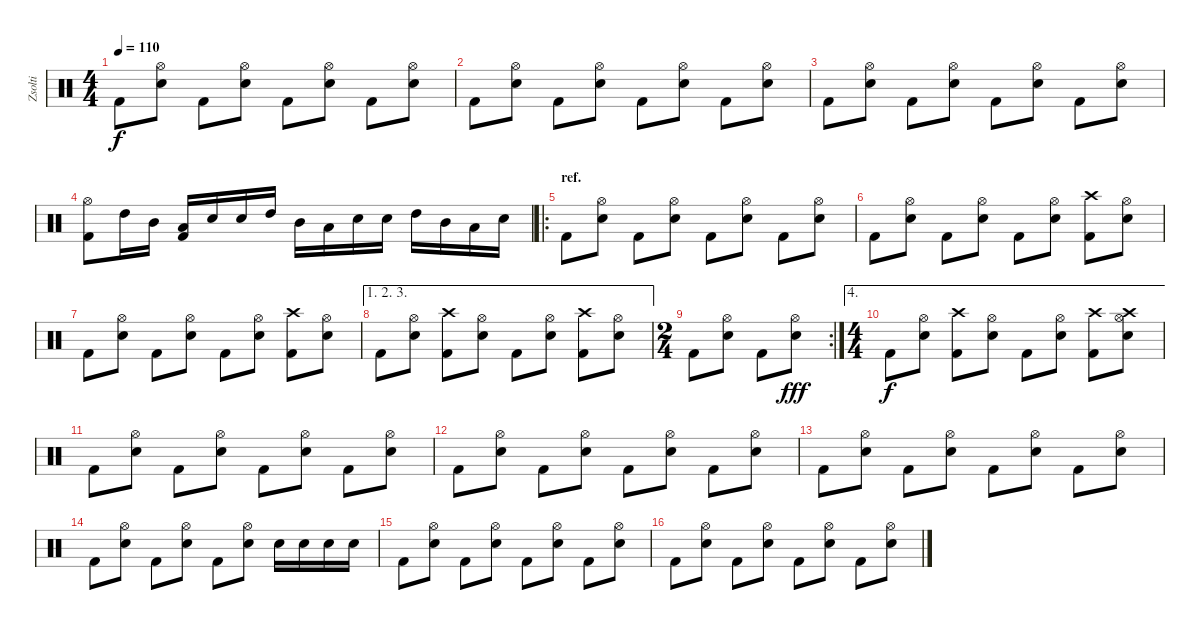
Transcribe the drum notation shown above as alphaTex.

\track ("Zsolti" "Zsolti") {instrument percussion}
\staff {score}
\articulation defaults
\ts (4 4)
\tempo 110
\clef neutral
\ks c "Kick (hit) 2".8{dy f}
("Hi-Hat (open)" "Snare (hit) 2").8 "Kick (hit) 2".8 ("Hi-Hat (open)" "Snare (hit) 2").8 "Kick (hit) 2".8 ("Hi-Hat (open)" "Snare (hit) 2").8 "Kick (hit) 2".8 ("Hi-Hat (open)" "Snare (hit) 2").8 |
"Kick (hit) 2".8 ("Hi-Hat (open)" "Snare (hit) 2").8 "Kick (hit) 2".8 ("Hi-Hat (open)" "Snare (hit) 2").8 "Kick (hit) 2".8 ("Hi-Hat (open)" "Snare (hit) 2").8 "Kick (hit) 2".8 ("Hi-Hat (open)" "Snare (hit) 2").8 |
"Kick (hit) 2".8 ("Hi-Hat (open)" "Snare (hit) 2").8 "Kick (hit) 2".8 ("Hi-Hat (open)" "Snare (hit) 2").8 "Kick (hit) 2".8 ("Hi-Hat (open)" "Snare (hit) 2").8 "Kick (hit) 2".8 ("Hi-Hat (open)" "Snare (hit) 2").8 |
("Hi-Hat (open)" "Kick (hit) 2").8 "High Tom (hit)".16 "Mid Tom (hit)".16 ("Low Tom (hit)" "Kick (hit) 2").16 "Snare (hit) 2".16 "Snare (hit) 2".16 "High Tom (hit)".16 "Mid Tom (hit)".16 "Low Tom (hit)".16 "Snare (hit) 2".16 "Snare (hit) 2".16 "High Tom (hit)".16 "Mid Tom (hit)".16 "Low Tom (hit)".16 "Snare (hit) 2".16 |
\ro
\section ("" "ref.")
"Kick (hit) 2".8 ("Hi-Hat (open)" "Snare (hit) 2").8 "Kick (hit) 2".8 ("Hi-Hat (open)" "Snare (hit) 2").8 "Kick (hit) 2".8 ("Hi-Hat (open)" "Snare (hit) 2").8 "Kick (hit) 2".8 ("Hi-Hat (open)" "Snare (hit) 2").8 |
"Kick (hit) 2".8 ("Hi-Hat (open)" "Snare (hit) 2").8 "Kick (hit) 2".8 ("Hi-Hat (open)" "Snare (hit) 2").8 "Kick (hit) 2".8 ("Hi-Hat (open)" "Snare (hit) 2").8 ("Crash high (hit)" "Kick (hit) 2").8 ("Hi-Hat (open)" "Snare (hit) 2").8 |
"Kick (hit) 2".8 ("Hi-Hat (open)" "Snare (hit) 2").8 "Kick (hit) 2".8 ("Hi-Hat (open)" "Snare (hit) 2").8 "Kick (hit) 2".8 ("Hi-Hat (open)" "Snare (hit) 2").8 ("Crash high (hit)" "Kick (hit) 2").8 ("Hi-Hat (open)" "Snare (hit) 2").8 |
\ae (1 2 3)
"Kick (hit) 2".8 ("Hi-Hat (open)" "Snare (hit) 2").8 ("Crash high (hit)" "Kick (hit) 2").8 ("Hi-Hat (open)" "Snare (hit) 2").8 "Kick (hit) 2".8 ("Hi-Hat (open)" "Snare (hit) 2").8 ("Crash high (hit)" "Kick (hit) 2").8 ("Hi-Hat (open)" "Snare (hit) 2").8 |
\rc 2
\ts (2 4)
"Kick (hit) 2".8 ("Hi-Hat (open)" "Snare (hit) 2").8 "Kick (hit) 2".8 ("Hi-Hat (open)" "Snare (hit) 2").8{dy fff} |
\ae 4
\ts (4 4)
"Kick (hit) 2".8{dy f} ("Hi-Hat (open)" "Snare (hit) 2").8 ("Crash high (hit)" "Kick (hit) 2").8 ("Hi-Hat (open)" "Snare (hit) 2").8 "Kick (hit) 2".8 ("Hi-Hat (open)" "Snare (hit) 2").8 ("Crash high (hit)" "Kick (hit) 2").8 ("Crash high (hit)" "Hi-Hat (open)" "Snare (hit) 2").8 |
"Kick (hit) 2".8 ("Hi-Hat (open)" "Snare (hit) 2").8 "Kick (hit) 2".8 ("Hi-Hat (open)" "Snare (hit) 2").8 "Kick (hit) 2".8 ("Hi-Hat (open)" "Snare (hit) 2").8 "Kick (hit) 2".8 ("Hi-Hat (open)" "Snare (hit) 2").8 |
"Kick (hit) 2".8 ("Hi-Hat (open)" "Snare (hit) 2").8 "Kick (hit) 2".8 ("Hi-Hat (open)" "Snare (hit) 2").8 "Kick (hit) 2".8 ("Hi-Hat (open)" "Snare (hit) 2").8 "Kick (hit) 2".8 ("Hi-Hat (open)" "Snare (hit) 2").8 |
"Kick (hit) 2".8 ("Hi-Hat (open)" "Snare (hit) 2").8 "Kick (hit) 2".8 ("Hi-Hat (open)" "Snare (hit) 2").8 "Kick (hit) 2".8 ("Hi-Hat (open)" "Snare (hit) 2").8 "Kick (hit) 2".8 ("Hi-Hat (open)" "Snare (hit) 2").8 |
"Kick (hit) 2".8 ("Hi-Hat (open)" "Snare (hit) 2").8 "Kick (hit) 2".8 ("Hi-Hat (open)" "Snare (hit) 2").8 "Kick (hit) 2".8 ("Hi-Hat (open)" "Snare (hit) 2").8 "Snare (hit) 2".16 "Snare (hit) 2".16 "Snare (hit) 2".16 "Snare (hit) 2".16 |
"Kick (hit) 2".8 ("Hi-Hat (open)" "Snare (hit) 2").8 "Kick (hit) 2".8 ("Hi-Hat (open)" "Snare (hit) 2").8 "Kick (hit) 2".8 ("Hi-Hat (open)" "Snare (hit) 2").8 "Kick (hit) 2".8 ("Hi-Hat (open)" "Snare (hit) 2").8 |
"Kick (hit) 2".8 ("Hi-Hat (open)" "Snare (hit) 2").8 "Kick (hit) 2".8 ("Hi-Hat (open)" "Snare (hit) 2").8 "Kick (hit) 2".8 ("Hi-Hat (open)" "Snare (hit) 2").8 "Kick (hit) 2".8 ("Hi-Hat (open)" "Snare (hit) 2").8
